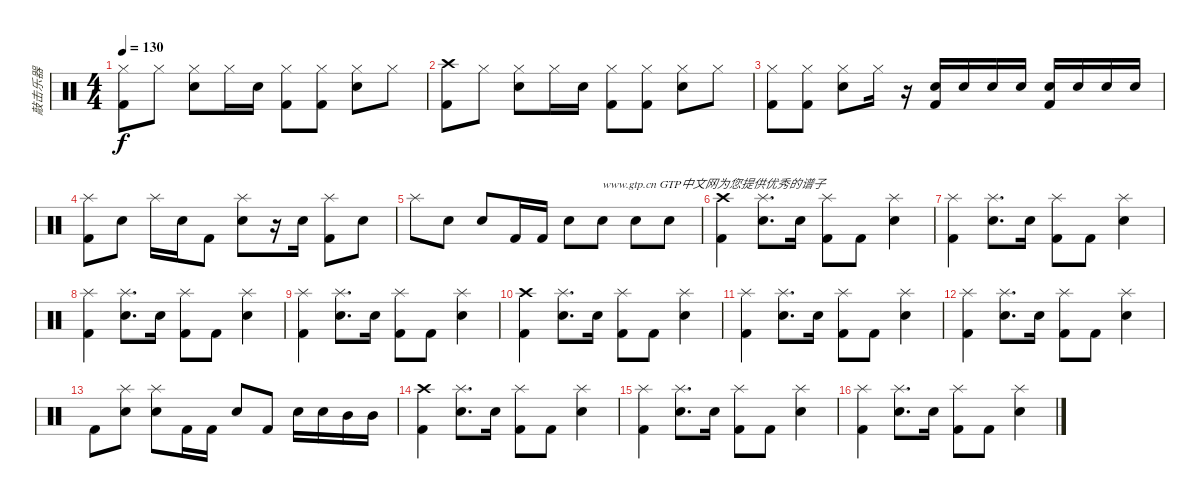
\track ("敲击乐器" "敲击乐器") {instrument percussion}
\staff {score}
\articulation defaults
\ts (4 4)
\tempo 130
\clef neutral
\ks c
("Hi-Hat (closed)" "Kick (hit) 2").8{dy f} "Hi-Hat (closed)".8 ("Hi-Hat (closed)" "Snare (hit) 2").8 "Hi-Hat (closed)".16 "Snare (hit) 2".16 ("Hi-Hat (closed)" "Kick (hit) 2").8 ("Hi-Hat (closed)" "Kick (hit) 2").8 ("Hi-Hat (closed)" "Snare (hit) 2").8 "Hi-Hat (closed)".8 |
("Crash high (hit)" "Kick (hit) 2").8 "Hi-Hat (closed)".8 ("Hi-Hat (closed)" "Snare (hit) 2").8 "Hi-Hat (closed)".16 "Snare (hit) 2".16 ("Hi-Hat (closed)" "Kick (hit) 2").8 ("Hi-Hat (closed)" "Kick (hit) 2").8 ("Hi-Hat (closed)" "Snare (hit) 2").8 "Hi-Hat (closed)".8 |
("Hi-Hat (closed)" "Kick (hit) 2").8 ("Hi-Hat (closed)" "Kick (hit) 2").8 ("Hi-Hat (closed)" "Snare (hit) 2").8 "Hi-Hat (closed)".16 r.16 ("Snare (hit) 2" "Kick (hit) 2").16 "Snare (hit) 2".16 "Snare (hit) 2".16 "Snare (hit) 2".16 ("Snare (hit) 2" "Kick (hit) 2").16 "Snare (hit) 2".16 "Snare (hit) 2".16 "Snare (hit) 2".16 |
("Splash (hit)" "Kick (hit) 2").8 "Snare (hit) 2".8 "Splash (hit)".16 "Snare (hit) 2".16 "Kick (hit) 2".8 ("Splash (hit)" "Snare (hit) 2").8 r.16 "Snare (hit) 2".16 ("Splash (hit)" "Kick (hit) 2").8 "Snare (hit) 2".8 |
"Splash (hit)".8 "Snare (hit) 2".8 "Snare (hit) 2".8 "Kick (hit) 2".16 "Kick (hit) 2".16 "Snare (hit) 2".8 "Snare (hit) 2".8{txt "www.gtp.cn GTP中文网为您提供优秀的谱子"} "Snare (hit) 2".8 "Snare (hit) 2".8 |
("Crash high (hit)" "Kick (hit) 2").4 ("Splash (hit)" "Snare (hit) 2").8{d} "Snare (hit) 2".16 ("Splash (hit)" "Kick (hit) 2").8 "Kick (hit) 2".8 ("Splash (hit)" "Snare (hit) 2").4 |
("Splash (hit)" "Kick (hit) 2").4 ("Splash (hit)" "Snare (hit) 2").8{d} "Snare (hit) 2".16 ("Splash (hit)" "Kick (hit) 2").8 "Kick (hit) 2".8 ("Splash (hit)" "Snare (hit) 2").4 |
("Splash (hit)" "Kick (hit) 2").4 ("Splash (hit)" "Snare (hit) 2").8{d} "Snare (hit) 2".16 ("Splash (hit)" "Kick (hit) 2").8 "Kick (hit) 2".8 ("Splash (hit)" "Snare (hit) 2").4 |
("Splash (hit)" "Kick (hit) 2").4 ("Splash (hit)" "Snare (hit) 2").8{d} "Snare (hit) 2".16 ("Splash (hit)" "Kick (hit) 2").8 "Kick (hit) 2".8 ("Splash (hit)" "Snare (hit) 2").4 |
("Crash high (hit)" "Kick (hit) 2").4 ("Splash (hit)" "Snare (hit) 2").8{d} "Snare (hit) 2".16 ("Splash (hit)" "Kick (hit) 2").8 "Kick (hit) 2".8 ("Splash (hit)" "Snare (hit) 2").4 |
("Splash (hit)" "Kick (hit) 2").4 ("Splash (hit)" "Snare (hit) 2").8{d} "Snare (hit) 2".16 ("Splash (hit)" "Kick (hit) 2").8 "Kick (hit) 2".8 ("Splash (hit)" "Snare (hit) 2").4 |
("Splash (hit)" "Kick (hit) 2").4 ("Splash (hit)" "Snare (hit) 2").8{d} "Snare (hit) 2".16 ("Splash (hit)" "Kick (hit) 2").8 "Kick (hit) 2".8 ("Splash (hit)" "Snare (hit) 2").4 |
"Kick (hit) 2".8 ("Splash (hit)" "Snare (hit) 2").8 ("Splash (hit)" "Snare (hit) 2").8 "Kick (hit) 2".16 "Kick (hit) 2".16 "Snare (hit) 2".8 "Kick (hit) 2".8 "Snare (hit) 2".16 "Snare (hit) 2".16 "Mid Tom (hit)".16 "Mid Tom (hit)".16 |
("Crash high (hit)" "Kick (hit) 2").4 ("Splash (hit)" "Snare (hit) 2").8{d} "Snare (hit) 2".16 ("Splash (hit)" "Kick (hit) 2").8 "Kick (hit) 2".8 ("Splash (hit)" "Snare (hit) 2").4 |
("Splash (hit)" "Kick (hit) 2").4 ("Splash (hit)" "Snare (hit) 2").8{d} "Snare (hit) 2".16 ("Splash (hit)" "Kick (hit) 2").8 "Kick (hit) 2".8 ("Splash (hit)" "Snare (hit) 2").4 |
("Splash (hit)" "Kick (hit) 2").4 ("Splash (hit)" "Snare (hit) 2").8{d} "Snare (hit) 2".16 ("Splash (hit)" "Kick (hit) 2").8 "Kick (hit) 2".8 ("Splash (hit)" "Snare (hit) 2").4
